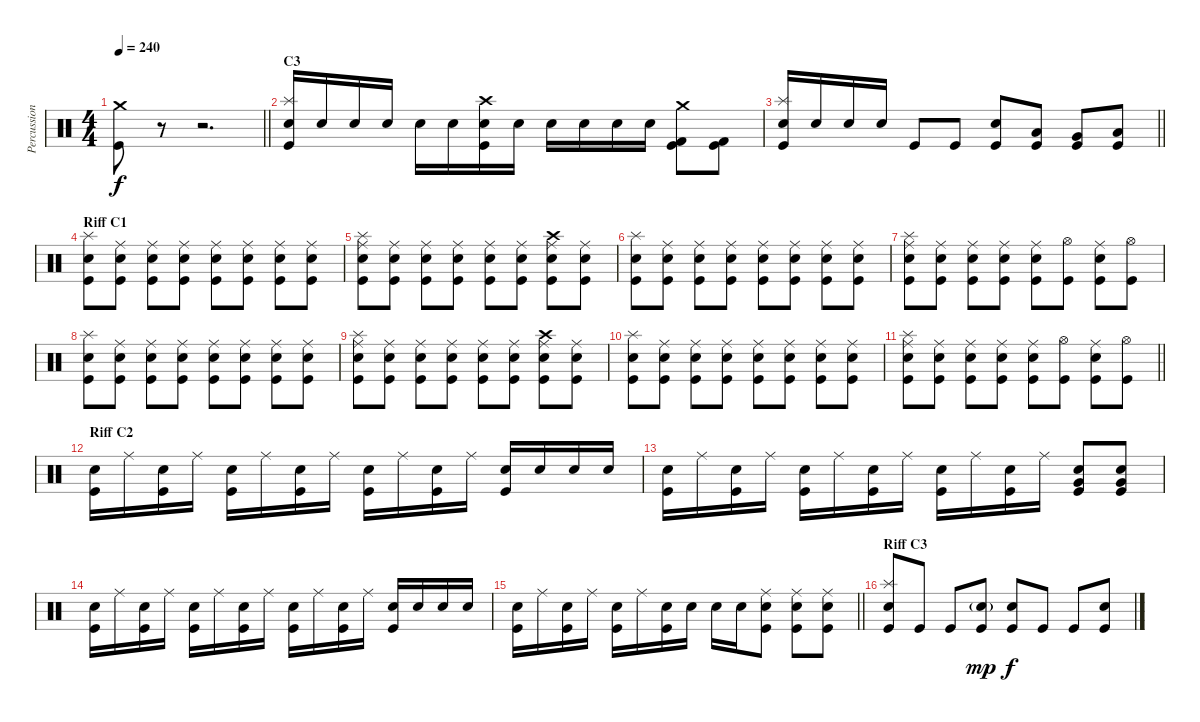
\track ("Percussions" "Percussion") {instrument percussion}
\staff {score}
\articulation defaults
\ts (4 4)
\tempo 240
\clef neutral
\barLineRight lightlight
\ks c
("Crash medium (hit)" "Kick (hit)").8{dy f} r.8{volume 0} r.2{d} |
\section ("" "C3")
("Splash (hit)" "Electric Snare (hit)" "Kick (hit)").16{volume 13} "Electric Snare (hit)".16 "Electric Snare (hit)".16 "Electric Snare (hit)".16 "Electric Snare (hit)".16 "Electric Snare (hit)".16 ("Crash high (hit)" "Electric Snare (hit)" "Kick (hit)").16 "Electric Snare (hit)".16 "Electric Snare (hit)".16 "Electric Snare (hit)".16 "Electric Snare (hit)".16 "Electric Snare (hit)".16 ("Crash medium (hit)" "Kick (hit) 2" "Kick (hit)").8 ("Kick (hit) 2" "Kick (hit)").8 |
\barLineRight lightlight
("Splash (hit)" "Electric Snare (hit)" "Kick (hit)").16 "Electric Snare (hit)".16 "Electric Snare (hit)".16 "Electric Snare (hit)".16 "Kick (hit)".8 "Kick (hit)".8 ("Electric Snare (hit)" "Kick (hit)").8 ("Low Tom (hit)" "Kick (hit)").8 ("Very Low Tom (hit)" "Kick (hit)").8 ("Low Tom (hit)" "Kick (hit)").8 |
\section ("" "Riff C1")
("Splash (hit)" "Electric Snare (hit)" "Kick (hit)").8{volume 13} ("Electric Snare (hit)" "Ride (middle)" "Kick (hit)").8 ("Electric Snare (hit)" "Ride (middle)" "Kick (hit)").8 ("Electric Snare (hit)" "Ride (middle)" "Kick (hit)").8 ("Electric Snare (hit)" "Ride (middle)" "Kick (hit)").8 ("Electric Snare (hit)" "Ride (middle)" "Kick (hit)").8 ("Electric Snare (hit)" "Ride (middle)" "Kick (hit)").8 ("Electric Snare (hit)" "Ride (middle)" "Kick (hit)").8 |
("Splash (hit)" "Electric Snare (hit)" "Ride (middle)" "Kick (hit)").8 ("Electric Snare (hit)" "Ride (middle)" "Kick (hit)").8 ("Electric Snare (hit)" "Ride (middle)" "Kick (hit)").8 ("Electric Snare (hit)" "Ride (middle)" "Kick (hit)").8 ("Electric Snare (hit)" "Ride (middle)" "Kick (hit)").8 ("Electric Snare (hit)" "Ride (middle)" "Kick (hit)").8 ("Crash high (hit)" "Electric Snare (hit)" "Ride (middle)" "Kick (hit)").8 ("Electric Snare (hit)" "Ride (middle)" "Kick (hit)").8 |
("Splash (hit)" "Electric Snare (hit)" "Kick (hit)").8{volume 13} ("Electric Snare (hit)" "Ride (middle)" "Kick (hit)").8 ("Electric Snare (hit)" "Ride (middle)" "Kick (hit)").8 ("Electric Snare (hit)" "Ride (middle)" "Kick (hit)").8 ("Electric Snare (hit)" "Ride (middle)" "Kick (hit)").8 ("Electric Snare (hit)" "Ride (middle)" "Kick (hit)").8 ("Electric Snare (hit)" "Ride (middle)" "Kick (hit)").8 ("Electric Snare (hit)" "Ride (middle)" "Kick (hit)").8 |
("Splash (hit)" "Electric Snare (hit)" "Ride (middle)" "Kick (hit)").8 ("Electric Snare (hit)" "Ride (middle)" "Kick (hit)").8 ("Electric Snare (hit)" "Ride (middle)" "Kick (hit)").8 ("Electric Snare (hit)" "Ride (middle)" "Kick (hit)").8 ("Electric Snare (hit)" "Ride (middle)" "Kick (hit)").8 ("Hi-Hat (open)" "Kick (hit)").8 ("Electric Snare (hit)" "Ride (middle)" "Kick (hit)").8 ("Hi-Hat (open)" "Kick (hit)").8 |
("Splash (hit)" "Electric Snare (hit)" "Kick (hit)").8{volume 13} ("Electric Snare (hit)" "Ride (middle)" "Kick (hit)").8 ("Electric Snare (hit)" "Ride (middle)" "Kick (hit)").8 ("Electric Snare (hit)" "Ride (middle)" "Kick (hit)").8 ("Electric Snare (hit)" "Ride (middle)" "Kick (hit)").8 ("Electric Snare (hit)" "Ride (middle)" "Kick (hit)").8 ("Electric Snare (hit)" "Ride (middle)" "Kick (hit)").8 ("Electric Snare (hit)" "Ride (middle)" "Kick (hit)").8 |
("Splash (hit)" "Electric Snare (hit)" "Ride (middle)" "Kick (hit)").8 ("Electric Snare (hit)" "Ride (middle)" "Kick (hit)").8 ("Electric Snare (hit)" "Ride (middle)" "Kick (hit)").8 ("Electric Snare (hit)" "Ride (middle)" "Kick (hit)").8 ("Electric Snare (hit)" "Ride (middle)" "Kick (hit)").8 ("Electric Snare (hit)" "Ride (middle)" "Kick (hit)").8 ("Crash high (hit)" "Electric Snare (hit)" "Ride (middle)" "Kick (hit)").8 ("Electric Snare (hit)" "Ride (middle)" "Kick (hit)").8 |
("Splash (hit)" "Electric Snare (hit)" "Kick (hit)").8{volume 13} ("Electric Snare (hit)" "Ride (middle)" "Kick (hit)").8 ("Electric Snare (hit)" "Ride (middle)" "Kick (hit)").8 ("Electric Snare (hit)" "Ride (middle)" "Kick (hit)").8 ("Electric Snare (hit)" "Ride (middle)" "Kick (hit)").8 ("Electric Snare (hit)" "Ride (middle)" "Kick (hit)").8 ("Electric Snare (hit)" "Ride (middle)" "Kick (hit)").8 ("Electric Snare (hit)" "Ride (middle)" "Kick (hit)").8 |
\barLineRight lightlight
("Splash (hit)" "Electric Snare (hit)" "Ride (middle)" "Kick (hit)").8 ("Electric Snare (hit)" "Ride (middle)" "Kick (hit)").8 ("Electric Snare (hit)" "Ride (middle)" "Kick (hit)").8 ("Electric Snare (hit)" "Ride (middle)" "Kick (hit)").8 ("Electric Snare (hit)" "Ride (middle)" "Kick (hit)").8 ("Hi-Hat (open)" "Kick (hit)").8 ("Electric Snare (hit)" "Ride (middle)" "Kick (hit)").8 ("Hi-Hat (open)" "Kick (hit)").8 |
\section ("" "Riff C2")
("Electric Snare (hit)" "Kick (hit)").16 "Ride (middle)".16 ("Electric Snare (hit)" "Kick (hit)").16 "Ride (middle)".16 ("Electric Snare (hit)" "Kick (hit)").16 "Ride (middle)".16 ("Electric Snare (hit)" "Kick (hit)").16 "Ride (middle)".16 ("Electric Snare (hit)" "Kick (hit)").16 "Ride (middle)".16 ("Electric Snare (hit)" "Kick (hit)").16 "Ride (middle)".16 ("Electric Snare (hit)" "Kick (hit)").16 "Electric Snare (hit)".16 "Electric Snare (hit)".16 "Electric Snare (hit)".16 |
("Electric Snare (hit)" "Kick (hit)").16 "Ride (middle)".16 ("Electric Snare (hit)" "Kick (hit)").16 "Ride (middle)".16 ("Electric Snare (hit)" "Kick (hit)").16 "Ride (middle)".16 ("Electric Snare (hit)" "Kick (hit)").16 "Ride (middle)".16 ("Electric Snare (hit)" "Kick (hit)").16 "Ride (middle)".16 ("Electric Snare (hit)" "Kick (hit)").16 "Ride (middle)".16 ("Electric Snare (hit)" "Very Low Tom (hit)" "Kick (hit)").8 ("Electric Snare (hit)" "Very Low Tom (hit)" "Kick (hit)").8 |
("Electric Snare (hit)" "Kick (hit)").16 "Ride (middle)".16 ("Electric Snare (hit)" "Kick (hit)").16 "Ride (middle)".16 ("Electric Snare (hit)" "Kick (hit)").16 "Ride (middle)".16 ("Electric Snare (hit)" "Kick (hit)").16 "Ride (middle)".16 ("Electric Snare (hit)" "Kick (hit)").16 "Ride (middle)".16 ("Electric Snare (hit)" "Kick (hit)").16 "Ride (middle)".16 ("Electric Snare (hit)" "Kick (hit)").16 "Electric Snare (hit)".16 "Electric Snare (hit)".16 "Electric Snare (hit)".16 |
\barLineRight lightlight
("Electric Snare (hit)" "Kick (hit)").16 "Ride (middle)".16 ("Electric Snare (hit)" "Kick (hit)").16 "Ride (middle)".16 ("Electric Snare (hit)" "Kick (hit)").16 "Ride (middle)".16 ("Electric Snare (hit)" "Kick (hit)").16 "Electric Snare (hit)".16 "Electric Snare (hit)".16 "Electric Snare (hit)".16 ("Electric Snare (hit)" "Ride (middle)" "Kick (hit)").8 ("Electric Snare (hit)" "Ride (middle)" "Kick (hit)").8 ("Electric Snare (hit)" "Ride (middle)" "Kick (hit)").8 |
\section ("" "Riff C3")
("Splash (hit)" "Electric Snare (hit)" "Kick (hit)").8 "Kick (hit)".8 "Kick (hit)".8 ("Electric Snare (hit)"{g} "Kick (hit)").8{dy mp} ("Electric Snare (hit)" "Kick (hit)").8{dy f} "Kick (hit)".8 "Kick (hit)".8 ("Electric Snare (hit)" "Kick (hit)").8
